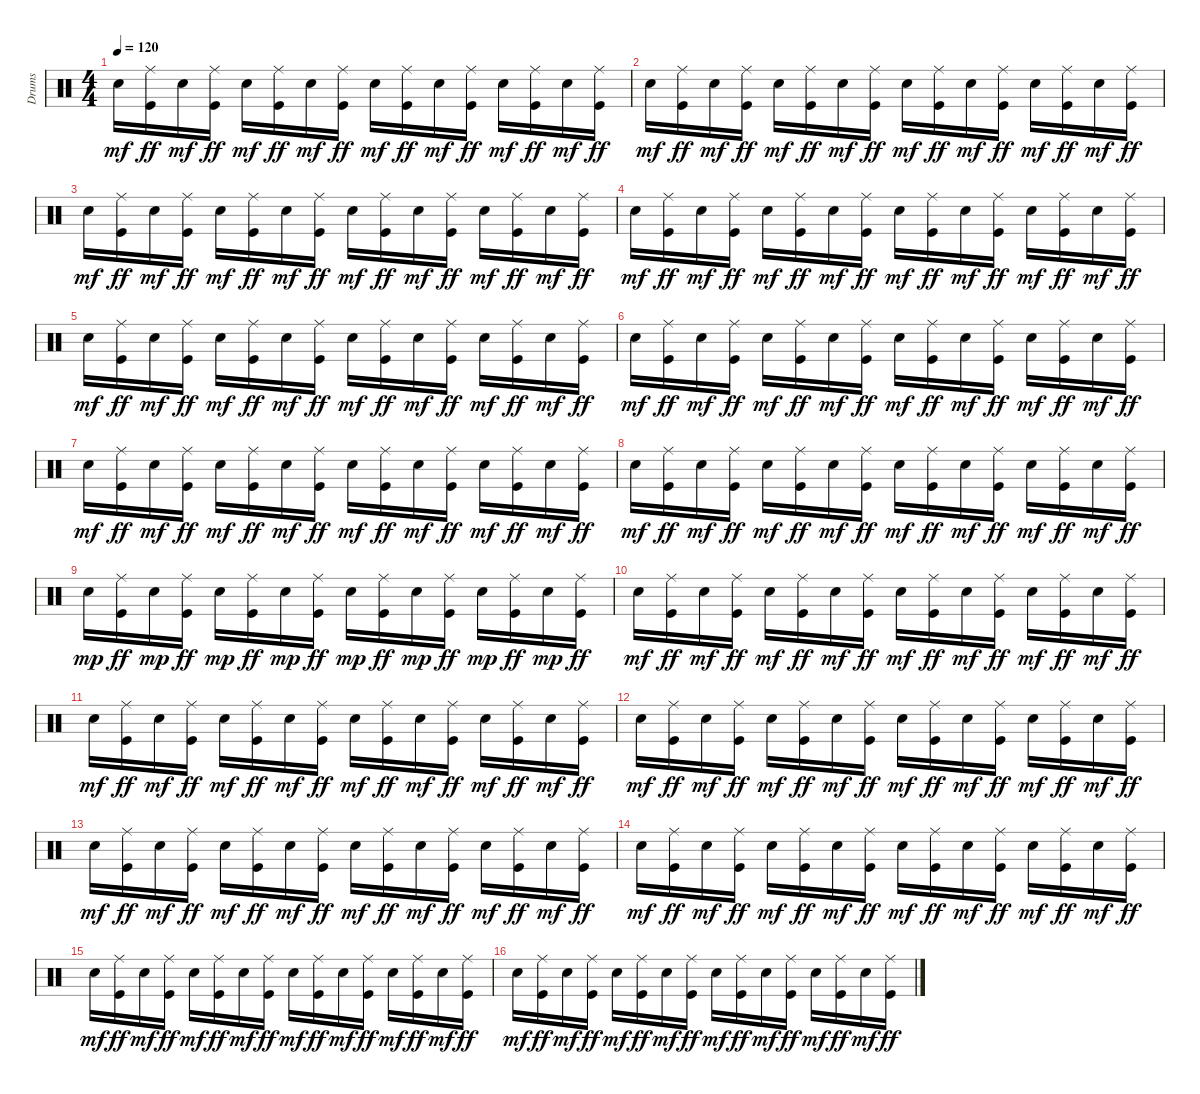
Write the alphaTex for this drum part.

\track ("Drums" "Drums") {instrument percussion}
\staff {score}
\articulation defaults
\ts (4 4)
\tempo 120
\clef neutral
\ks c "Electric Snare (hit)".16{dy mf}
("Ride (middle)" "Kick (hit)").16{dy ff} "Electric Snare (hit)".16{dy mf} ("Ride (middle)" "Kick (hit)").16{dy ff} "Electric Snare (hit)".16{dy mf} ("Ride (middle)" "Kick (hit)").16{dy ff} "Electric Snare (hit)".16{dy mf} ("Ride (middle)" "Kick (hit)").16{dy ff} "Electric Snare (hit)".16{dy mf} ("Ride (middle)" "Kick (hit)").16{dy ff} "Electric Snare (hit)".16{dy mf} ("Ride (middle)" "Kick (hit)").16{dy ff} "Electric Snare (hit)".16{dy mf} ("Ride (middle)" "Kick (hit)").16{dy ff} "Electric Snare (hit)".16{dy mf} ("Ride (middle)" "Kick (hit)").16{dy ff} |
"Electric Snare (hit)".16{dy mf} ("Ride (middle)" "Kick (hit)").16{dy ff} "Electric Snare (hit)".16{dy mf} ("Ride (middle)" "Kick (hit)").16{dy ff} "Electric Snare (hit)".16{dy mf} ("Ride (middle)" "Kick (hit)").16{dy ff} "Electric Snare (hit)".16{dy mf} ("Ride (middle)" "Kick (hit)").16{dy ff} "Electric Snare (hit)".16{dy mf} ("Ride (middle)" "Kick (hit)").16{dy ff} "Electric Snare (hit)".16{dy mf} ("Ride (middle)" "Kick (hit)").16{dy ff} "Electric Snare (hit)".16{dy mf} ("Ride (middle)" "Kick (hit)").16{dy ff} "Electric Snare (hit)".16{dy mf} ("Ride (middle)" "Kick (hit)").16{dy ff} |
"Electric Snare (hit)".16{dy mf} ("Ride (middle)" "Kick (hit)").16{dy ff} "Electric Snare (hit)".16{dy mf} ("Ride (middle)" "Kick (hit)").16{dy ff} "Electric Snare (hit)".16{dy mf} ("Ride (middle)" "Kick (hit)").16{dy ff} "Electric Snare (hit)".16{dy mf} ("Ride (middle)" "Kick (hit)").16{dy ff} "Electric Snare (hit)".16{dy mf} ("Ride (middle)" "Kick (hit)").16{dy ff} "Electric Snare (hit)".16{dy mf} ("Ride (middle)" "Kick (hit)").16{dy ff} "Electric Snare (hit)".16{dy mf} ("Ride (middle)" "Kick (hit)").16{dy ff} "Electric Snare (hit)".16{dy mf} ("Ride (middle)" "Kick (hit)").16{dy ff} |
"Electric Snare (hit)".16{dy mf} ("Ride (middle)" "Kick (hit)").16{dy ff} "Electric Snare (hit)".16{dy mf} ("Ride (middle)" "Kick (hit)").16{dy ff} "Electric Snare (hit)".16{dy mf} ("Ride (middle)" "Kick (hit)").16{dy ff} "Electric Snare (hit)".16{dy mf} ("Ride (middle)" "Kick (hit)").16{dy ff} "Electric Snare (hit)".16{dy mf} ("Ride (middle)" "Kick (hit)").16{dy ff} "Electric Snare (hit)".16{dy mf} ("Ride (middle)" "Kick (hit)").16{dy ff} "Electric Snare (hit)".16{dy mf} ("Ride (middle)" "Kick (hit)").16{dy ff} "Electric Snare (hit)".16{dy mf} ("Ride (middle)" "Kick (hit)").16{dy ff} |
"Electric Snare (hit)".16{dy mf} ("Ride (middle)" "Kick (hit)").16{dy ff} "Electric Snare (hit)".16{dy mf} ("Ride (middle)" "Kick (hit)").16{dy ff} "Electric Snare (hit)".16{dy mf} ("Ride (middle)" "Kick (hit)").16{dy ff} "Electric Snare (hit)".16{dy mf} ("Ride (middle)" "Kick (hit)").16{dy ff} "Electric Snare (hit)".16{dy mf} ("Ride (middle)" "Kick (hit)").16{dy ff} "Electric Snare (hit)".16{dy mf} ("Ride (middle)" "Kick (hit)").16{dy ff} "Electric Snare (hit)".16{dy mf} ("Ride (middle)" "Kick (hit)").16{dy ff} "Electric Snare (hit)".16{dy mf} ("Ride (middle)" "Kick (hit)").16{dy ff} |
"Electric Snare (hit)".16{dy mf} ("Ride (middle)" "Kick (hit)").16{dy ff} "Electric Snare (hit)".16{dy mf} ("Ride (middle)" "Kick (hit)").16{dy ff} "Electric Snare (hit)".16{dy mf} ("Ride (middle)" "Kick (hit)").16{dy ff} "Electric Snare (hit)".16{dy mf} ("Ride (middle)" "Kick (hit)").16{dy ff} "Electric Snare (hit)".16{dy mf} ("Ride (middle)" "Kick (hit)").16{dy ff} "Electric Snare (hit)".16{dy mf} ("Ride (middle)" "Kick (hit)").16{dy ff} "Electric Snare (hit)".16{dy mf} ("Ride (middle)" "Kick (hit)").16{dy ff} "Electric Snare (hit)".16{dy mf} ("Ride (middle)" "Kick (hit)").16{dy ff} |
"Electric Snare (hit)".16{dy mf} ("Ride (middle)" "Kick (hit)").16{dy ff} "Electric Snare (hit)".16{dy mf} ("Ride (middle)" "Kick (hit)").16{dy ff} "Electric Snare (hit)".16{dy mf} ("Ride (middle)" "Kick (hit)").16{dy ff} "Electric Snare (hit)".16{dy mf} ("Ride (middle)" "Kick (hit)").16{dy ff} "Electric Snare (hit)".16{dy mf} ("Ride (middle)" "Kick (hit)").16{dy ff} "Electric Snare (hit)".16{dy mf} ("Ride (middle)" "Kick (hit)").16{dy ff} "Electric Snare (hit)".16{dy mf} ("Ride (middle)" "Kick (hit)").16{dy ff} "Electric Snare (hit)".16{dy mf} ("Ride (middle)" "Kick (hit)").16{dy ff} |
"Electric Snare (hit)".16{dy mf} ("Ride (middle)" "Kick (hit)").16{dy ff} "Electric Snare (hit)".16{dy mf} ("Ride (middle)" "Kick (hit)").16{dy ff} "Electric Snare (hit)".16{dy mf} ("Ride (middle)" "Kick (hit)").16{dy ff} "Electric Snare (hit)".16{dy mf} ("Ride (middle)" "Kick (hit)").16{dy ff} "Electric Snare (hit)".16{dy mf} ("Ride (middle)" "Kick (hit)").16{dy ff} "Electric Snare (hit)".16{dy mf} ("Ride (middle)" "Kick (hit)").16{dy ff} "Electric Snare (hit)".16{dy mf} ("Ride (middle)" "Kick (hit)").16{dy ff} "Electric Snare (hit)".16{dy mf} ("Ride (middle)" "Kick (hit)").16{dy ff} |
"Electric Snare (hit)".16{dy mp} ("Ride (middle)" "Kick (hit)").16{dy ff} "Electric Snare (hit)".16{dy mp} ("Ride (middle)" "Kick (hit)").16{dy ff} "Electric Snare (hit)".16{dy mp} ("Ride (middle)" "Kick (hit)").16{dy ff} "Electric Snare (hit)".16{dy mp} ("Ride (middle)" "Kick (hit)").16{dy ff} "Electric Snare (hit)".16{dy mp} ("Ride (middle)" "Kick (hit)").16{dy ff} "Electric Snare (hit)".16{dy mp} ("Ride (middle)" "Kick (hit)").16{dy ff} "Electric Snare (hit)".16{dy mp} ("Ride (middle)" "Kick (hit)").16{dy ff} "Electric Snare (hit)".16{dy mp} ("Ride (middle)" "Kick (hit)").16{dy ff} |
"Electric Snare (hit)".16{dy mf} ("Ride (middle)" "Kick (hit)").16{dy ff} "Electric Snare (hit)".16{dy mf} ("Ride (middle)" "Kick (hit)").16{dy ff} "Electric Snare (hit)".16{dy mf} ("Ride (middle)" "Kick (hit)").16{dy ff} "Electric Snare (hit)".16{dy mf} ("Ride (middle)" "Kick (hit)").16{dy ff} "Electric Snare (hit)".16{dy mf} ("Ride (middle)" "Kick (hit)").16{dy ff} "Electric Snare (hit)".16{dy mf} ("Ride (middle)" "Kick (hit)").16{dy ff} "Electric Snare (hit)".16{dy mf} ("Ride (middle)" "Kick (hit)").16{dy ff} "Electric Snare (hit)".16{dy mf} ("Ride (middle)" "Kick (hit)").16{dy ff} |
"Electric Snare (hit)".16{dy mf} ("Ride (middle)" "Kick (hit)").16{dy ff} "Electric Snare (hit)".16{dy mf} ("Ride (middle)" "Kick (hit)").16{dy ff} "Electric Snare (hit)".16{dy mf} ("Ride (middle)" "Kick (hit)").16{dy ff} "Electric Snare (hit)".16{dy mf} ("Ride (middle)" "Kick (hit)").16{dy ff} "Electric Snare (hit)".16{dy mf} ("Ride (middle)" "Kick (hit)").16{dy ff} "Electric Snare (hit)".16{dy mf} ("Ride (middle)" "Kick (hit)").16{dy ff} "Electric Snare (hit)".16{dy mf} ("Ride (middle)" "Kick (hit)").16{dy ff} "Electric Snare (hit)".16{dy mf} ("Ride (middle)" "Kick (hit)").16{dy ff} |
"Electric Snare (hit)".16{dy mf} ("Ride (middle)" "Kick (hit)").16{dy ff} "Electric Snare (hit)".16{dy mf} ("Ride (middle)" "Kick (hit)").16{dy ff} "Electric Snare (hit)".16{dy mf} ("Ride (middle)" "Kick (hit)").16{dy ff} "Electric Snare (hit)".16{dy mf} ("Ride (middle)" "Kick (hit)").16{dy ff} "Electric Snare (hit)".16{dy mf} ("Ride (middle)" "Kick (hit)").16{dy ff} "Electric Snare (hit)".16{dy mf} ("Ride (middle)" "Kick (hit)").16{dy ff} "Electric Snare (hit)".16{dy mf} ("Ride (middle)" "Kick (hit)").16{dy ff} "Electric Snare (hit)".16{dy mf} ("Ride (middle)" "Kick (hit)").16{dy ff} |
"Electric Snare (hit)".16{dy mf} ("Ride (middle)" "Kick (hit)").16{dy ff} "Electric Snare (hit)".16{dy mf} ("Ride (middle)" "Kick (hit)").16{dy ff} "Electric Snare (hit)".16{dy mf} ("Ride (middle)" "Kick (hit)").16{dy ff} "Electric Snare (hit)".16{dy mf} ("Ride (middle)" "Kick (hit)").16{dy ff} "Electric Snare (hit)".16{dy mf} ("Ride (middle)" "Kick (hit)").16{dy ff} "Electric Snare (hit)".16{dy mf} ("Ride (middle)" "Kick (hit)").16{dy ff} "Electric Snare (hit)".16{dy mf} ("Ride (middle)" "Kick (hit)").16{dy ff} "Electric Snare (hit)".16{dy mf} ("Ride (middle)" "Kick (hit)").16{dy ff} |
"Electric Snare (hit)".16{dy mf} ("Ride (middle)" "Kick (hit)").16{dy ff} "Electric Snare (hit)".16{dy mf} ("Ride (middle)" "Kick (hit)").16{dy ff} "Electric Snare (hit)".16{dy mf} ("Ride (middle)" "Kick (hit)").16{dy ff} "Electric Snare (hit)".16{dy mf} ("Ride (middle)" "Kick (hit)").16{dy ff} "Electric Snare (hit)".16{dy mf} ("Ride (middle)" "Kick (hit)").16{dy ff} "Electric Snare (hit)".16{dy mf} ("Ride (middle)" "Kick (hit)").16{dy ff} "Electric Snare (hit)".16{dy mf} ("Ride (middle)" "Kick (hit)").16{dy ff} "Electric Snare (hit)".16{dy mf} ("Ride (middle)" "Kick (hit)").16{dy ff} |
"Electric Snare (hit)".16{dy mf} ("Ride (middle)" "Kick (hit)").16{dy ff} "Electric Snare (hit)".16{dy mf} ("Ride (middle)" "Kick (hit)").16{dy ff} "Electric Snare (hit)".16{dy mf} ("Ride (middle)" "Kick (hit)").16{dy ff} "Electric Snare (hit)".16{dy mf} ("Ride (middle)" "Kick (hit)").16{dy ff} "Electric Snare (hit)".16{dy mf} ("Ride (middle)" "Kick (hit)").16{dy ff} "Electric Snare (hit)".16{dy mf} ("Ride (middle)" "Kick (hit)").16{dy ff} "Electric Snare (hit)".16{dy mf} ("Ride (middle)" "Kick (hit)").16{dy ff} "Electric Snare (hit)".16{dy mf} ("Ride (middle)" "Kick (hit)").16{dy ff} |
"Electric Snare (hit)".16{dy mf} ("Ride (middle)" "Kick (hit)").16{dy ff} "Electric Snare (hit)".16{dy mf} ("Ride (middle)" "Kick (hit)").16{dy ff} "Electric Snare (hit)".16{dy mf} ("Ride (middle)" "Kick (hit)").16{dy ff} "Electric Snare (hit)".16{dy mf} ("Ride (middle)" "Kick (hit)").16{dy ff} "Electric Snare (hit)".16{dy mf} ("Ride (middle)" "Kick (hit)").16{dy ff} "Electric Snare (hit)".16{dy mf} ("Ride (middle)" "Kick (hit)").16{dy ff} "Electric Snare (hit)".16{dy mf} ("Ride (middle)" "Kick (hit)").16{dy ff} "Electric Snare (hit)".16{dy mf} ("Ride (middle)" "Kick (hit)").16{dy ff}
